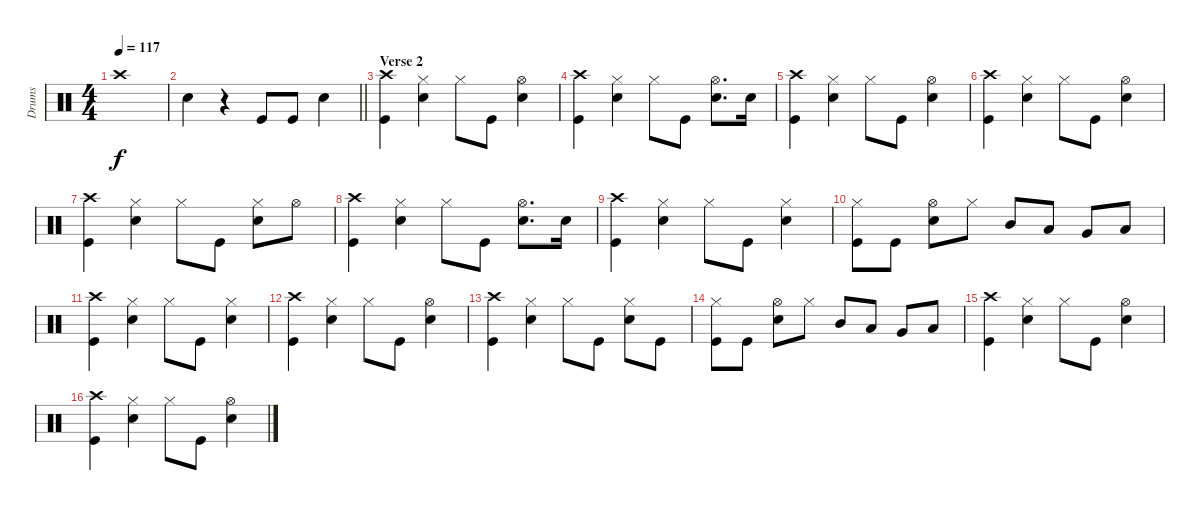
\track ("Drums" "Drums") {instrument percussion}
\staff {score}
\articulation defaults
\ts (4 4)
\tempo 117
\clef neutral
\ks c "Crash high (hit)"{t}.1{dy f}
|
\barLineRight lightlight "Snare (hit) 2".4
r.4 "Kick (hit)".8 "Kick (hit)".8 "Snare (hit) 2".4 |
\section ("" "Verse 2")
("Kick (hit)" "Crash high (hit)").4 ("Hi-Hat (closed)" "Snare (hit) 2").4 "Hi-Hat (closed)".8 "Kick (hit)".8 ("Hi-Hat (open)" "Snare (hit) 2").4 |
("Kick (hit)" "Crash high (hit)").4 ("Hi-Hat (closed)" "Snare (hit) 2").4 "Hi-Hat (closed)".8 "Kick (hit)".8 ("Hi-Hat (open)" "Snare (hit) 2").8{d} "Snare (hit) 2".16 |
("Kick (hit)" "Crash high (hit)").4 ("Hi-Hat (closed)" "Snare (hit) 2").4 "Hi-Hat (closed)".8 "Kick (hit)".8 ("Hi-Hat (open)" "Snare (hit) 2").4 |
("Kick (hit)" "Crash high (hit)").4 ("Hi-Hat (closed)" "Snare (hit) 2").4 "Hi-Hat (closed)".8 "Kick (hit)".8 ("Hi-Hat (open)" "Snare (hit) 2").4 |
("Kick (hit)" "Crash high (hit)").4 ("Hi-Hat (closed)" "Snare (hit) 2").4 "Hi-Hat (closed)".8 "Kick (hit)".8 ("Hi-Hat (closed)" "Snare (hit) 2").8 "Hi-Hat (open)".8 |
("Kick (hit)" "Crash high (hit)").4 ("Hi-Hat (closed)" "Snare (hit) 2").4 "Hi-Hat (closed)".8 "Kick (hit)".8 ("Hi-Hat (open)" "Snare (hit) 2").8{d} "Snare (hit) 2".16 |
("Crash high (hit)" "Kick (hit)").4 ("Hi-Hat (closed)" "Snare (hit) 2").4 "Hi-Hat (closed)".8 "Kick (hit)".8 ("Hi-Hat (closed)" "Snare (hit) 2").4 |
("Hi-Hat (closed)" "Kick (hit)").8 "Kick (hit)".8 ("Hi-Hat (open)" "Snare (hit) 2").8 "Hi-Hat (closed)".8 "Mid Tom (hit)".8 "Low Tom (hit)".8 "Very Low Tom (hit)".8 "Low Floor Tom (hit)".8 |
("Crash high (hit)" "Kick (hit)").4 ("Hi-Hat (closed)" "Snare (hit) 2").4 "Hi-Hat (closed)".8 "Kick (hit)".8 ("Hi-Hat (closed)" "Snare (hit) 2").4 |
("Kick (hit)" "Crash high (hit)").4 ("Hi-Hat (closed)" "Snare (hit) 2").4 "Hi-Hat (closed)".8 "Kick (hit)".8 ("Hi-Hat (open)" "Snare (hit) 2").4 |
("Kick (hit)" "Crash high (hit)").4 ("Hi-Hat (closed)" "Snare (hit) 2").4 "Hi-Hat (closed)".8 "Kick (hit)".8 ("Hi-Hat (closed)" "Snare (hit) 2").8 "Kick (hit)".8 |
("Hi-Hat (closed)" "Kick (hit)").8 "Kick (hit)".8 ("Hi-Hat (open)" "Snare (hit) 2").8 "Hi-Hat (closed)".8 "Mid Tom (hit)".8 "Low Tom (hit)".8 "Very Low Tom (hit)".8 "Low Floor Tom (hit)".8 |
("Kick (hit)" "Crash high (hit)").4 ("Hi-Hat (closed)" "Snare (hit) 2").4 "Hi-Hat (closed)".8 "Kick (hit)".8 ("Hi-Hat (open)" "Snare (hit) 2").4 |
("Kick (hit)" "Crash high (hit)").4 ("Hi-Hat (closed)" "Snare (hit) 2").4 "Hi-Hat (closed)".8 "Kick (hit)".8 ("Hi-Hat (open)" "Snare (hit) 2").4
